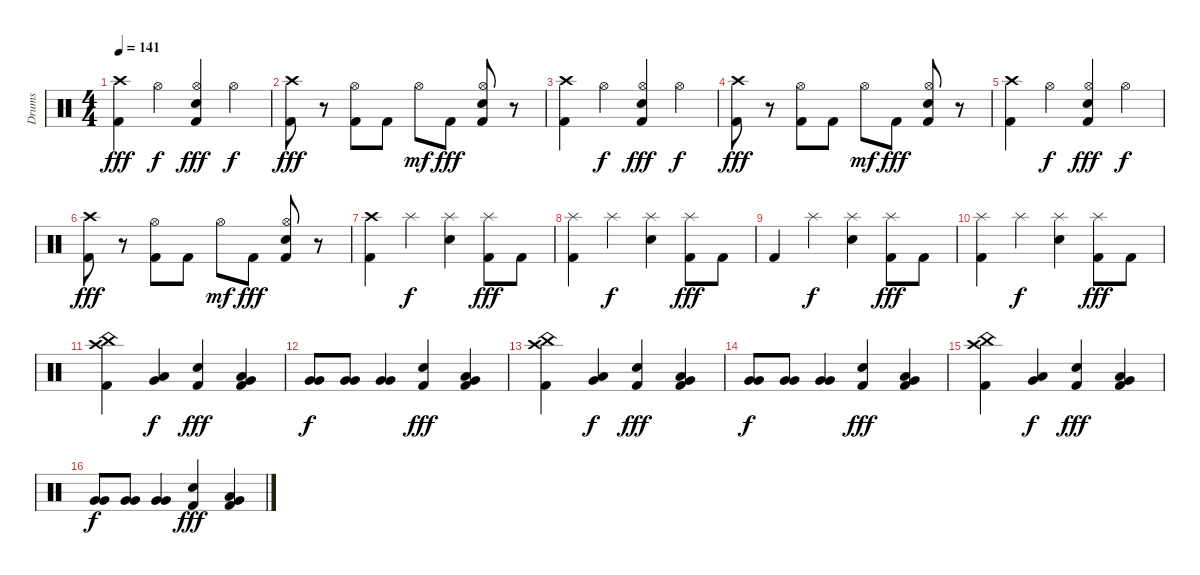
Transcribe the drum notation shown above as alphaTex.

\track ("Drums" "Drums") {instrument percussion}
\staff {score}
\articulation defaults
\ts (4 4)
\tempo 141
\clef neutral
\ks c
("Crash high (hit)" "Kick (hit) 2").4{dy fff} "Hi-Hat (open)".4{dy f} ("Hi-Hat (open)" "Electric Snare (hit)" "Kick (hit) 2").4{dy fff} "Hi-Hat (open)".4{dy f} |
("Crash high (hit)" "Kick (hit) 2").8{dy fff} r.8 ("Hi-Hat (open)" "Kick (hit) 2").8 "Kick (hit) 2".8 "Hi-Hat (open)".8{dy mf} "Kick (hit) 2".8{dy fff} ("Hi-Hat (open)" "Electric Snare (hit)" "Kick (hit) 2").8 r.8 |
("Crash high (hit)" "Kick (hit) 2").4 "Hi-Hat (open)".4{dy f} ("Hi-Hat (open)" "Electric Snare (hit)" "Kick (hit) 2").4{dy fff} "Hi-Hat (open)".4{dy f} |
("Crash high (hit)" "Kick (hit) 2").8{dy fff} r.8 ("Hi-Hat (open)" "Kick (hit) 2").8 "Kick (hit) 2".8 "Hi-Hat (open)".8{dy mf} "Kick (hit) 2".8{dy fff} ("Hi-Hat (open)" "Electric Snare (hit)" "Kick (hit) 2").8 r.8 |
("Crash high (hit)" "Kick (hit) 2").4 "Hi-Hat (open)".4{dy f} ("Hi-Hat (open)" "Electric Snare (hit)" "Kick (hit) 2").4{dy fff} "Hi-Hat (open)".4{dy f} |
("Crash high (hit)" "Kick (hit) 2").8{dy fff} r.8 ("Hi-Hat (open)" "Kick (hit) 2").8 "Kick (hit) 2".8 "Hi-Hat (open)".8{dy mf} "Kick (hit) 2".8{dy fff} ("Hi-Hat (open)" "Electric Snare (hit)" "Kick (hit) 2").8 r.8 |
("Crash high (hit)" "Kick (hit) 2").4 "Splash (hit)".4{dy f} ("Splash (hit)" "Electric Snare (hit)").4 ("Splash (hit)" "Kick (hit) 2").8{dy fff} "Kick (hit) 2".8 |
("Splash (hit)" "Kick (hit) 2").4 "Splash (hit)".4{dy f} ("Splash (hit)" "Electric Snare (hit)").4 ("Splash (hit)" "Kick (hit) 2").8{dy fff} "Kick (hit) 2".8 |
"Kick (hit) 2".4 "Splash (hit)".4{dy f} ("Splash (hit)" "Electric Snare (hit)").4 ("Splash (hit)" "Kick (hit) 2").8{dy fff} "Kick (hit) 2".8 |
("Splash (hit)" "Kick (hit) 2").4 "Splash (hit)".4{dy f} ("Splash (hit)" "Electric Snare (hit)").4 ("Splash (hit)" "Kick (hit) 2").8{dy fff} "Kick (hit) 2".8 |
("Crash high (hit)" "China (hit)" "Kick (hit) 2").4 ("Low Tom (hit)" "Very Low Tom (hit)").4{dy f} ("Electric Snare (hit)" "Kick (hit) 2").4{dy fff} ("Low Tom (hit)" "Very Low Tom (hit)" "Kick (hit) 2").4 |
("Very Low Tom (hit)" "Very Low Tom (hit)").8{dy f} ("Very Low Tom (hit)" "Very Low Tom (hit)").8 ("Very Low Tom (hit)" "Very Low Tom (hit)").4 ("Electric Snare (hit)" "Kick (hit) 2").4{dy fff} ("Low Tom (hit)" "Very Low Tom (hit)" "Kick (hit) 2").4 |
("Crash high (hit)" "China (hit)" "Kick (hit) 2").4 ("Low Tom (hit)" "Very Low Tom (hit)").4{dy f} ("Electric Snare (hit)" "Kick (hit) 2").4{dy fff} ("Low Tom (hit)" "Very Low Tom (hit)" "Kick (hit) 2").4 |
("Very Low Tom (hit)" "Very Low Tom (hit)").8{dy f} ("Very Low Tom (hit)" "Very Low Tom (hit)").8 ("Very Low Tom (hit)" "Very Low Tom (hit)").4 ("Electric Snare (hit)" "Kick (hit) 2").4{dy fff} ("Low Tom (hit)" "Very Low Tom (hit)" "Kick (hit) 2").4 |
("Crash high (hit)" "China (hit)" "Kick (hit) 2").4 ("Low Tom (hit)" "Very Low Tom (hit)").4{dy f} ("Electric Snare (hit)" "Kick (hit) 2").4{dy fff} ("Low Tom (hit)" "Very Low Tom (hit)" "Kick (hit) 2").4 |
("Very Low Tom (hit)" "Very Low Tom (hit)").8{dy f} ("Very Low Tom (hit)" "Very Low Tom (hit)").8 ("Very Low Tom (hit)" "Very Low Tom (hit)").4 ("Electric Snare (hit)" "Kick (hit) 2").4{dy fff} ("Low Tom (hit)" "Very Low Tom (hit)" "Kick (hit) 2").4
